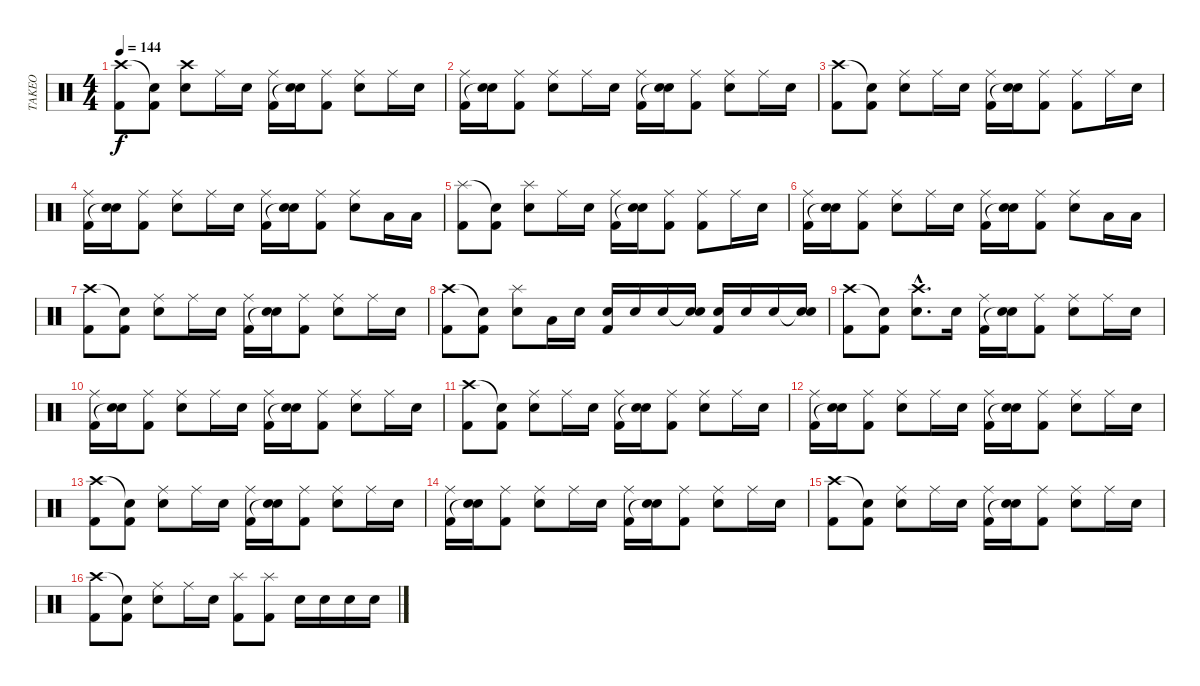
\track ("TAKEO" "TAKEO") {instrument percussion}
\staff {score}
\articulation defaults
\ts (4 4)
\tempo 144
\clef neutral
\ks c
("Crash high (hit)" "Kick (hit) 2").8{dy f} ("Snare (hit)"{t} "Kick (hit) 2").8 ("Crash high (hit)" "Electric Snare (hit)").8 "Ride (middle)".16 "Electric Snare (hit)".16 ("Ride (middle)" "Kick (hit) 2").16 ("Electric Snare (hit)" "Snare (hit)"{t}).16 ("Ride (middle)" "Kick (hit) 2").8 ("Ride (middle)" "Electric Snare (hit)").8 "Ride (middle)".16 "Electric Snare (hit)".16 |
("Ride (middle)" "Kick (hit) 2").16 ("Electric Snare (hit)" "Snare (hit)"{t}).16 ("Ride (middle)" "Kick (hit) 2").8 ("Ride (middle)" "Electric Snare (hit)").8 "Ride (middle)".16 "Electric Snare (hit)".16 ("Ride (middle)" "Kick (hit) 2").16 ("Electric Snare (hit)" "Snare (hit)"{t}).16 ("Ride (middle)" "Kick (hit) 2").8 ("Ride (middle)" "Electric Snare (hit)").8 "Ride (middle)".16 "Electric Snare (hit)".16 |
("Crash high (hit)" "Kick (hit) 2").8 ("Snare (hit)"{t} "Kick (hit) 2").8 ("Ride (middle)" "Electric Snare (hit)").8 "Ride (middle)".16 "Electric Snare (hit)".16 ("Ride (middle)" "Kick (hit) 2").16 ("Electric Snare (hit)" "Snare (hit)"{t}).16 ("Ride (middle)" "Kick (hit) 2").8 ("Ride (middle)" "Kick (hit) 2").8 "Ride (middle)".16 "Electric Snare (hit)".16 |
("Ride (middle)" "Kick (hit) 2").16 ("Electric Snare (hit)" "Snare (hit)"{t}).16 ("Ride (middle)" "Kick (hit) 2").8 ("Ride (middle)" "Electric Snare (hit)").8 "Ride (middle)".16 "Electric Snare (hit)".16 ("Ride (middle)" "Kick (hit) 2").16 ("Electric Snare (hit)" "Snare (hit)"{t}).16 ("Ride (middle)" "Kick (hit) 2").8 ("Ride (middle)" "Electric Snare (hit)").8 "Low Floor Tom (hit)".16 "Low Floor Tom (hit)".16 |
("Splash (hit)" "Kick (hit) 2").8 ("Snare (hit)"{t} "Kick (hit) 2").8 ("Splash (hit)" "Electric Snare (hit)").8 "Ride (middle)".16 "Electric Snare (hit)".16 ("Ride (middle)" "Kick (hit) 2").16 ("Electric Snare (hit)" "Snare (hit)"{t}).16 ("Ride (middle)" "Kick (hit) 2").8 ("Ride (middle)" "Kick (hit) 2").8 "Ride (middle)".16 "Electric Snare (hit)".16 |
("Ride (middle)" "Kick (hit) 2").16 ("Electric Snare (hit)" "Snare (hit)"{t}).16 ("Ride (middle)" "Kick (hit) 2").8 ("Ride (middle)" "Electric Snare (hit)").8 "Ride (middle)".16 "Electric Snare (hit)".16 ("Ride (middle)" "Kick (hit) 2").16 ("Electric Snare (hit)" "Snare (hit)"{t}).16 ("Ride (middle)" "Kick (hit) 2").8 ("Ride (middle)" "Electric Snare (hit)").8 "Low Floor Tom (hit)".16 "Low Floor Tom (hit)".16 |
("Crash high (hit)" "Kick (hit) 2").8 ("Snare (hit)"{t} "Kick (hit) 2").8 ("Ride (middle)" "Electric Snare (hit)").8 "Ride (middle)".16 "Electric Snare (hit)".16 ("Ride (middle)" "Kick (hit) 2").16 ("Electric Snare (hit)" "Snare (hit)"{t}).16 ("Ride (middle)" "Kick (hit) 2").8 ("Ride (middle)" "Electric Snare (hit)").8 "Ride (middle)".16 "Electric Snare (hit)".16 |
("Crash high (hit)" "Kick (hit) 2").8 ("Snare (hit)"{t} "Kick (hit) 2").8 ("Splash (hit)" "Electric Snare (hit)").8 "Low Floor Tom (hit)".16 "Electric Snare (hit)".16 ("Kick (hit) 2" "Electric Snare (hit)").16 "Electric Snare (hit)".16 "Electric Snare (hit)".16 ("Snare (hit)"{t} "Electric Snare (hit)").16 ("Kick (hit) 2" "Electric Snare (hit)").16 "Electric Snare (hit)".16 "Electric Snare (hit)".16 ("Snare (hit)"{t} "Electric Snare (hit)").16 |
("Crash high (hit)" "Kick (hit) 2").8 ("Snare (hit)"{t} "Kick (hit) 2").8 ("Crash high (hit)"{hac} "Electric Snare (hit)"{hac}).8{d} "Electric Snare (hit)".16 ("Ride (middle)" "Kick (hit) 2").16 ("Electric Snare (hit)" "Snare (hit)"{t}).16 ("Ride (middle)" "Kick (hit) 2").8 ("Electric Snare (hit)" "Ride (middle)").8 "Ride (middle)".16 "Electric Snare (hit)".16 |
("Ride (middle)" "Kick (hit) 2").16 ("Electric Snare (hit)" "Snare (hit)"{t}).16 ("Ride (middle)" "Kick (hit) 2").8 ("Ride (middle)" "Electric Snare (hit)").8 "Ride (middle)".16 "Electric Snare (hit)".16 ("Ride (middle)" "Kick (hit) 2").16 ("Electric Snare (hit)" "Snare (hit)"{t}).16 ("Ride (middle)" "Kick (hit) 2").8 ("Ride (middle)" "Electric Snare (hit)").8 "Ride (middle)".16 "Electric Snare (hit)".16 |
("Crash high (hit)" "Kick (hit) 2").8 ("Snare (hit)"{t} "Kick (hit) 2").8 ("Ride (middle)" "Electric Snare (hit)").8 "Ride (middle)".16 "Electric Snare (hit)".16 ("Ride (middle)" "Kick (hit) 2").16 ("Electric Snare (hit)" "Snare (hit)"{t}).16 ("Ride (middle)" "Kick (hit) 2").8 ("Ride (middle)" "Electric Snare (hit)").8 "Ride (middle)".16 "Electric Snare (hit)".16 |
("Ride (middle)" "Kick (hit) 2").16 ("Electric Snare (hit)" "Snare (hit)"{t}).16 ("Ride (middle)" "Kick (hit) 2").8 ("Ride (middle)" "Electric Snare (hit)").8 "Ride (middle)".16 "Electric Snare (hit)".16 ("Ride (middle)" "Kick (hit) 2").16 ("Electric Snare (hit)" "Snare (hit)"{t}).16 ("Ride (middle)" "Kick (hit) 2").8 ("Ride (middle)" "Electric Snare (hit)").8 "Ride (middle)".16 "Electric Snare (hit)".16 |
("Crash high (hit)" "Kick (hit) 2").8 ("Snare (hit)"{t} "Kick (hit) 2").8 ("Ride (middle)" "Electric Snare (hit)").8 "Ride (middle)".16 "Electric Snare (hit)".16 ("Ride (middle)" "Kick (hit) 2").16 ("Electric Snare (hit)" "Snare (hit)"{t}).16 ("Ride (middle)" "Kick (hit) 2").8 ("Ride (middle)" "Electric Snare (hit)").8 "Ride (middle)".16 "Electric Snare (hit)".16 |
("Ride (middle)" "Kick (hit) 2").16 ("Electric Snare (hit)" "Snare (hit)"{t}).16 ("Ride (middle)" "Kick (hit) 2").8 ("Ride (middle)" "Electric Snare (hit)").8 "Ride (middle)".16 "Electric Snare (hit)".16 ("Ride (middle)" "Kick (hit) 2").16 ("Electric Snare (hit)" "Snare (hit)"{t}).16 ("Ride (middle)" "Kick (hit) 2").8 ("Ride (middle)" "Electric Snare (hit)").8 "Ride (middle)".16 "Electric Snare (hit)".16 |
("Crash high (hit)" "Kick (hit) 2").8 ("Snare (hit)"{t} "Kick (hit) 2").8 ("Ride (middle)" "Electric Snare (hit)").8 "Ride (middle)".16 "Electric Snare (hit)".16 ("Ride (middle)" "Kick (hit) 2").16 ("Electric Snare (hit)" "Snare (hit)"{t}).16 ("Ride (middle)" "Kick (hit) 2").8 ("Ride (middle)" "Electric Snare (hit)").8 "Ride (middle)".16 "Electric Snare (hit)".16 |
("Crash high (hit)" "Kick (hit) 2").8 ("Snare (hit)"{t} "Kick (hit) 2").8 ("Ride (middle)" "Electric Snare (hit)").8 "Ride (middle)".16 "Electric Snare (hit)".16 ("Splash (hit)" "Kick (hit) 2").8 ("Splash (hit)" "Kick (hit) 2").8 "Electric Snare (hit)".16 "Electric Snare (hit)".16 "Electric Snare (hit)".16 "Electric Snare (hit)".16
